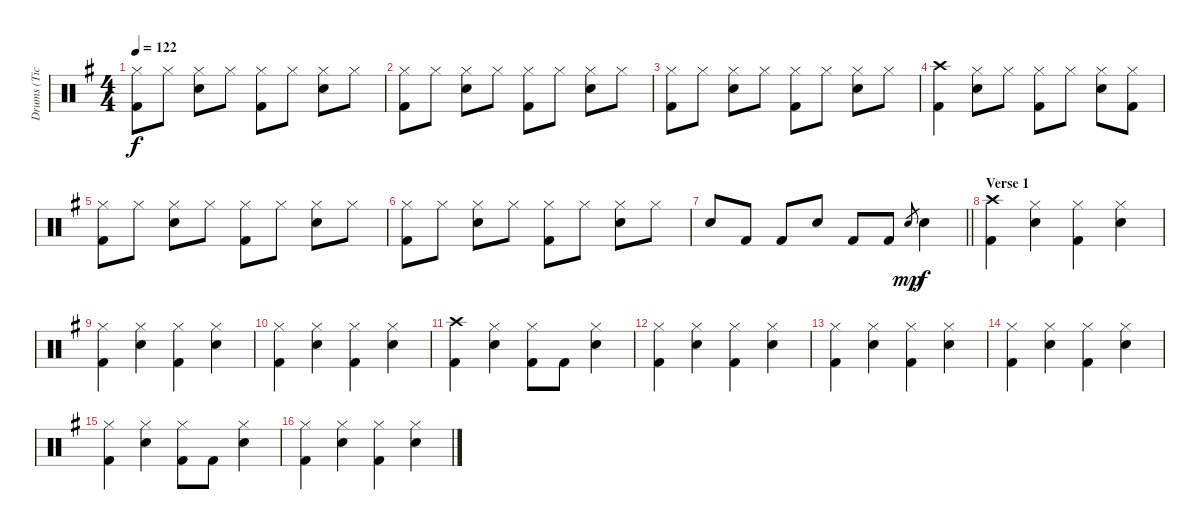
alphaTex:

\track ("Drums (Tico Torres)" "Drums (Tic") {instrument percussion}
\staff {score}
\articulation defaults
\ts (4 4)
\tempo 122
\clef neutral
\ks eminor
("Hi-Hat (closed)" "Kick (hit) 2").8{dy f} "Hi-Hat (closed)".8 ("Hi-Hat (closed)" "Snare (hit) 2").8 "Hi-Hat (closed)".8 ("Hi-Hat (closed)" "Kick (hit) 2").8 "Hi-Hat (closed)".8 ("Hi-Hat (closed)" "Snare (hit) 2").8 "Hi-Hat (closed)".8 |
("Hi-Hat (closed)" "Kick (hit) 2").8 "Hi-Hat (closed)".8 ("Hi-Hat (closed)" "Snare (hit) 2").8 "Hi-Hat (closed)".8 ("Hi-Hat (closed)" "Kick (hit) 2").8 "Hi-Hat (closed)".8 ("Hi-Hat (closed)" "Snare (hit) 2").8 "Hi-Hat (closed)".8 |
("Hi-Hat (closed)" "Kick (hit) 2").8 "Hi-Hat (closed)".8 ("Hi-Hat (closed)" "Snare (hit) 2").8 "Hi-Hat (closed)".8 ("Hi-Hat (closed)" "Kick (hit) 2").8 "Hi-Hat (closed)".8 ("Hi-Hat (closed)" "Snare (hit) 2").8 "Hi-Hat (closed)".8 |
("Crash high (hit)" "Kick (hit) 2").4 ("Hi-Hat (closed)" "Snare (hit) 2").8 "Hi-Hat (closed)".8 ("Hi-Hat (closed)" "Kick (hit) 2").8 "Hi-Hat (closed)".8 ("Hi-Hat (closed)" "Snare (hit) 2").8 ("Hi-Hat (closed)" "Kick (hit) 2").8 |
("Hi-Hat (closed)" "Kick (hit) 2").8 "Hi-Hat (closed)".8 ("Hi-Hat (closed)" "Snare (hit) 2").8 "Hi-Hat (closed)".8 ("Hi-Hat (closed)" "Kick (hit) 2").8 "Hi-Hat (closed)".8 ("Hi-Hat (closed)" "Snare (hit) 2").8 "Hi-Hat (closed)".8 |
("Hi-Hat (closed)" "Kick (hit) 2").8 "Hi-Hat (closed)".8 ("Hi-Hat (closed)" "Snare (hit) 2").8 "Hi-Hat (closed)".8 ("Hi-Hat (closed)" "Kick (hit) 2").8 "Hi-Hat (closed)".8 ("Hi-Hat (closed)" "Snare (hit) 2").8 "Hi-Hat (closed)".8 |
\barLineRight lightlight "Snare (hit) 2".8 "Kick (hit) 2".8 "Kick (hit) 2".8 "Snare (hit) 2".8 "Kick (hit) 2".8 "Kick (hit) 2".8 "Snare (hit) 2".8{gr dy mp} "Snare (hit) 2".4{dy f}
|
\section ("" "Verse 1")
("Crash high (hit)" "Kick (hit) 2").4 ("Hi-Hat (closed)" "Snare (hit) 2").4 ("Hi-Hat (closed)" "Kick (hit) 2").4 ("Hi-Hat (closed)" "Snare (hit) 2").4 |
("Hi-Hat (closed)" "Kick (hit) 2").4 ("Hi-Hat (closed)" "Snare (hit) 2").4 ("Hi-Hat (closed)" "Kick (hit) 2").4 ("Hi-Hat (closed)" "Snare (hit) 2").4 |
("Hi-Hat (closed)" "Kick (hit) 2").4 ("Hi-Hat (closed)" "Snare (hit) 2").4 ("Hi-Hat (closed)" "Kick (hit) 2").4 ("Hi-Hat (closed)" "Snare (hit) 2").4 |
("Crash high (hit)" "Kick (hit) 2").4 ("Hi-Hat (closed)" "Snare (hit) 2").4 ("Hi-Hat (closed)" "Kick (hit) 2").8 "Kick (hit) 2".8 ("Hi-Hat (closed)" "Snare (hit) 2").4 |
("Hi-Hat (closed)" "Kick (hit) 2").4 ("Hi-Hat (closed)" "Snare (hit) 2").4 ("Hi-Hat (closed)" "Kick (hit) 2").4 ("Hi-Hat (closed)" "Snare (hit) 2").4 |
("Hi-Hat (closed)" "Kick (hit) 2").4 ("Hi-Hat (closed)" "Snare (hit) 2").4 ("Hi-Hat (closed)" "Kick (hit) 2").4 ("Hi-Hat (closed)" "Snare (hit) 2").4 |
("Hi-Hat (closed)" "Kick (hit) 2").4 ("Hi-Hat (closed)" "Snare (hit) 2").4 ("Hi-Hat (closed)" "Kick (hit) 2").4 ("Hi-Hat (closed)" "Snare (hit) 2").4 |
("Hi-Hat (closed)" "Kick (hit) 2").4 ("Hi-Hat (closed)" "Snare (hit) 2").4 ("Hi-Hat (closed)" "Kick (hit) 2").8 "Kick (hit) 2".8 ("Hi-Hat (closed)" "Snare (hit) 2").4 |
("Hi-Hat (closed)" "Kick (hit) 2").4 ("Hi-Hat (closed)" "Snare (hit) 2").4 ("Hi-Hat (closed)" "Kick (hit) 2").4 ("Hi-Hat (closed)" "Snare (hit) 2").4
